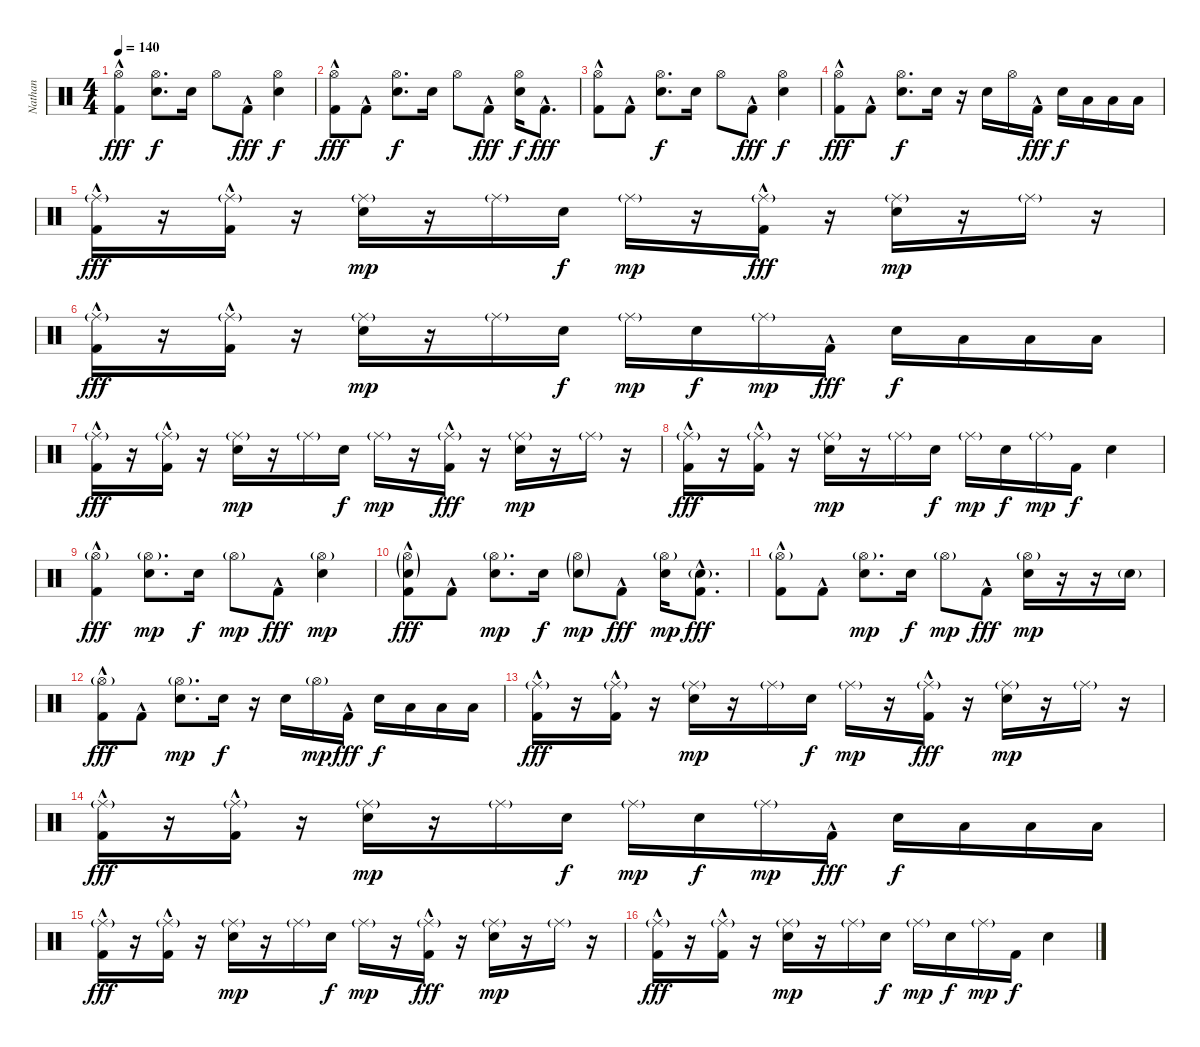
\track ("Nathan" "Nathan") {instrument percussion}
\staff {score}
\articulation defaults
\ts (4 4)
\tempo 140
\clef neutral
\ks c
("Hi-Hat (open)" "Kick (hit) 2"{hac}).4{dy fff} ("Hi-Hat (open)" "Snare (hit) 2").8{d dy f} "Snare (hit) 2".16 "Hi-Hat (open)".8 "Kick (hit) 2"{hac}.8{dy fff} ("Hi-Hat (open)" "Snare (hit) 2").4{dy f} |
("Hi-Hat (open)" "Kick (hit) 2"{hac}).8{dy fff} "Kick (hit) 2"{hac}.8 ("Hi-Hat (open)" "Snare (hit) 2").8{d dy f} "Snare (hit) 2".16 "Hi-Hat (open)".8 "Kick (hit) 2"{hac}.8{dy fff} ("Hi-Hat (open)" "Snare (hit) 2").16{dy f} "Kick (hit) 2"{hac}.8{d dy fff} |
("Hi-Hat (open)" "Kick (hit) 2"{hac}).8 "Kick (hit) 2"{hac}.8 ("Hi-Hat (open)" "Snare (hit) 2").8{d dy f} "Snare (hit) 2".16 "Hi-Hat (open)".8 "Kick (hit) 2"{hac}.8{dy fff} ("Hi-Hat (open)" "Snare (hit) 2").4{dy f} |
("Hi-Hat (open)" "Kick (hit) 2"{hac}).8{dy fff} "Kick (hit) 2"{hac}.8 ("Hi-Hat (open)" "Snare (hit) 2").8{d dy f} "Snare (hit) 2".16 r.16 "Snare (hit) 2".16 "Hi-Hat (open)".16 "Kick (hit) 2"{hac}.16{dy fff} "Snare (hit) 2".16{dy f} "Low Tom (hit)".16 "Low Tom (hit)".16 "Low Tom (hit)".16 |
("Ride (middle)"{g} "Kick (hit) 2"{hac}).16{dy fff} r.16 ("Ride (middle)"{g} "Kick (hit) 2"{hac}).16 r.16 ("Ride (middle)"{g} "Snare (hit) 2").16{dy mp} r.16 "Ride (middle)"{g}.16 "Snare (hit) 2".16{dy f} "Ride (middle)"{g}.16{dy mp} r.16 ("Ride (middle)"{g} "Kick (hit) 2"{hac}).16{dy fff} r.16 ("Ride (middle)"{g} "Snare (hit) 2").16{dy mp} r.16 "Ride (middle)"{g}.16 r.16 |
("Ride (middle)"{g} "Kick (hit) 2"{hac}).16{dy fff} r.16 ("Ride (middle)"{g} "Kick (hit) 2"{hac}).16 r.16 ("Ride (middle)"{g} "Snare (hit) 2").16{dy mp} r.16 "Ride (middle)"{g}.16 "Snare (hit) 2".16{dy f} "Ride (middle)"{g}.16{dy mp} "Snare (hit) 2".16{dy f} "Ride (middle)"{g}.16{dy mp} "Kick (hit) 2"{hac}.16{dy fff} "Snare (hit) 2".16{dy f} "Low Tom (hit)".16 "Low Tom (hit)".16 "Low Tom (hit)".16 |
("Ride (middle)"{g} "Kick (hit) 2"{hac}).16{dy fff} r.16 ("Ride (middle)"{g} "Kick (hit) 2"{hac}).16 r.16 ("Ride (middle)"{g} "Snare (hit) 2").16{dy mp} r.16 "Ride (middle)"{g}.16 "Snare (hit) 2".16{dy f} "Ride (middle)"{g}.16{dy mp} r.16 ("Ride (middle)"{g} "Kick (hit) 2"{hac}).16{dy fff} r.16 ("Ride (middle)"{g} "Snare (hit) 2").16{dy mp} r.16 "Ride (middle)"{g}.16 r.16 |
("Ride (middle)"{g} "Kick (hit) 2"{hac}).16{dy fff} r.16 ("Ride (middle)"{g} "Kick (hit) 2"{hac}).16 r.16 ("Ride (middle)"{g} "Snare (hit) 2").16{dy mp} r.16 "Ride (middle)"{g}.16 "Snare (hit) 2".16{dy f} "Ride (middle)"{g}.16{dy mp} "Snare (hit) 2".16{dy f} "Ride (middle)"{g}.16{dy mp} "Kick (hit) 2".16{dy f} "Snare (hit) 2".4 |
("Hi-Hat (open)"{g} "Kick (hit) 2"{hac}).4{dy fff} ("Hi-Hat (open)"{g} "Snare (hit) 2").8{d dy mp} "Snare (hit) 2".16{dy f} "Hi-Hat (open)"{g}.8{dy mp} "Kick (hit) 2"{hac}.8{dy fff} ("Hi-Hat (open)"{g} "Snare (hit) 2").4{dy mp} |
("Hi-Hat (open)"{g} "Snare (hit) 2"{g} "Kick (hit) 2"{hac}).8{dy fff} "Kick (hit) 2"{hac}.8 ("Hi-Hat (open)"{g} "Snare (hit) 2").8{d dy mp} "Snare (hit) 2".16{dy f} ("Hi-Hat (open)"{g} "Snare (hit) 2"{g}).8{dy mp} "Kick (hit) 2"{hac}.8{dy fff} ("Hi-Hat (open)"{g} "Snare (hit) 2").16{dy mp} ("Snare (hit) 2"{g} "Kick (hit) 2"{hac}).8{d dy fff} |
("Hi-Hat (open)"{g} "Kick (hit) 2"{hac}).8 "Kick (hit) 2"{hac}.8 ("Hi-Hat (open)"{g} "Snare (hit) 2").8{d dy mp} "Snare (hit) 2".16{dy f} "Hi-Hat (open)"{g}.8{dy mp} "Kick (hit) 2"{hac}.8{dy fff} ("Hi-Hat (open)"{g} "Snare (hit) 2").16{dy mp} r.16 r.16 "Snare (hit) 2"{g}.16 |
("Hi-Hat (open)"{g} "Kick (hit) 2"{hac}).8{dy fff} "Kick (hit) 2"{hac}.8 ("Hi-Hat (open)"{g} "Snare (hit) 2").8{d dy mp} "Snare (hit) 2".16{dy f} r.16 "Snare (hit) 2".16 "Hi-Hat (open)"{g}.16{dy mp} "Kick (hit) 2"{hac}.16{dy fff} "Snare (hit) 2".16{dy f} "Low Tom (hit)".16 "Low Tom (hit)".16 "Low Tom (hit)".16 |
("Ride (middle)"{g} "Kick (hit) 2"{hac}).16{dy fff} r.16 ("Ride (middle)"{g} "Kick (hit) 2"{hac}).16 r.16 ("Ride (middle)"{g} "Snare (hit) 2").16{dy mp} r.16 "Ride (middle)"{g}.16 "Snare (hit) 2".16{dy f} "Ride (middle)"{g}.16{dy mp} r.16 ("Ride (middle)"{g} "Kick (hit) 2"{hac}).16{dy fff} r.16 ("Ride (middle)"{g} "Snare (hit) 2").16{dy mp} r.16 "Ride (middle)"{g}.16 r.16 |
("Ride (middle)"{g} "Kick (hit) 2"{hac}).16{dy fff} r.16 ("Ride (middle)"{g} "Kick (hit) 2"{hac}).16 r.16 ("Ride (middle)"{g} "Snare (hit) 2").16{dy mp} r.16 "Ride (middle)"{g}.16 "Snare (hit) 2".16{dy f} "Ride (middle)"{g}.16{dy mp} "Snare (hit) 2".16{dy f} "Ride (middle)"{g}.16{dy mp} "Kick (hit) 2"{hac}.16{dy fff} "Snare (hit) 2".16{dy f} "Low Tom (hit)".16 "Low Tom (hit)".16 "Low Tom (hit)".16 |
("Ride (middle)"{g} "Kick (hit) 2"{hac}).16{dy fff} r.16 ("Ride (middle)"{g} "Kick (hit) 2"{hac}).16 r.16 ("Ride (middle)"{g} "Snare (hit) 2").16{dy mp} r.16 "Ride (middle)"{g}.16 "Snare (hit) 2".16{dy f} "Ride (middle)"{g}.16{dy mp} r.16 ("Ride (middle)"{g} "Kick (hit) 2"{hac}).16{dy fff} r.16 ("Ride (middle)"{g} "Snare (hit) 2").16{dy mp} r.16 "Ride (middle)"{g}.16 r.16 |
("Ride (middle)"{g} "Kick (hit) 2"{hac}).16{dy fff} r.16 ("Ride (middle)"{g} "Kick (hit) 2"{hac}).16 r.16 ("Ride (middle)"{g} "Snare (hit) 2").16{dy mp} r.16 "Ride (middle)"{g}.16 "Snare (hit) 2".16{dy f} "Ride (middle)"{g}.16{dy mp} "Snare (hit) 2".16{dy f} "Ride (middle)"{g}.16{dy mp} "Kick (hit) 2".16{dy f} "Snare (hit) 2".4
